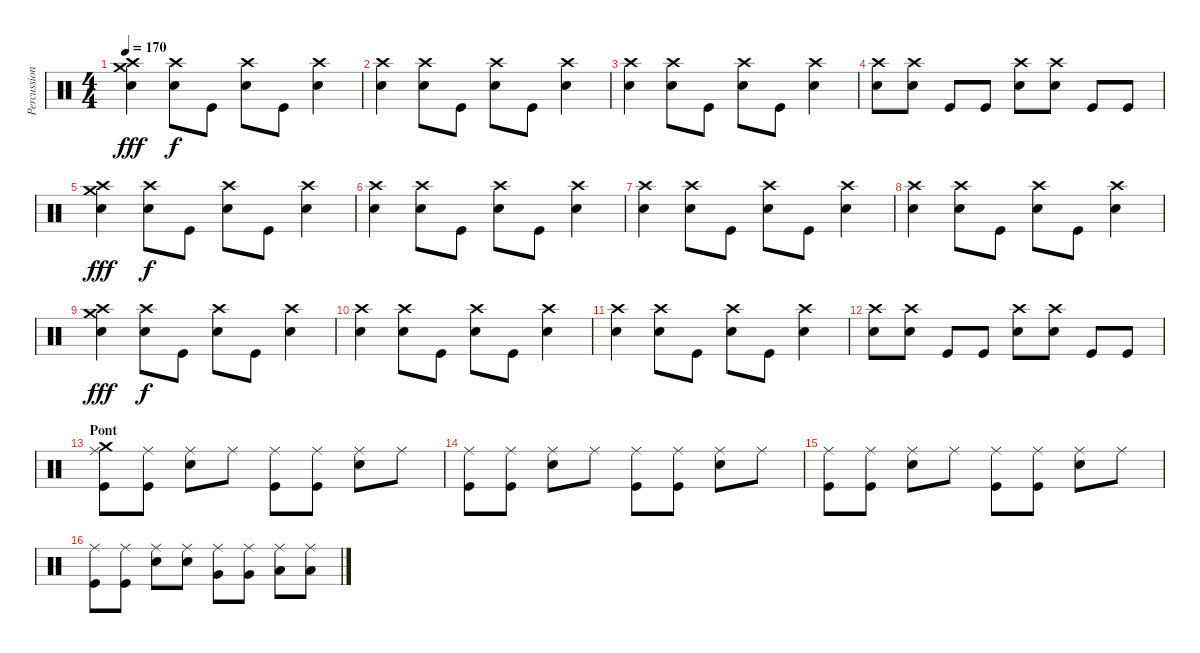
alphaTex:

\track ("Percussions" "Percussion") {instrument percussion}
\staff {score}
\articulation defaults
\ts (4 4)
\tempo 170
\clef neutral
\ks c
("Crash high (hit)" "Crash medium (hit)" "Electric Snare (hit)").4{dy fff} ("Crash high (hit)" "Electric Snare (hit)").8{dy f} "Kick (hit)".8 ("Crash high (hit)" "Electric Snare (hit)").8 "Kick (hit)".8 ("Crash high (hit)" "Electric Snare (hit)").4 |
("Crash high (hit)" "Electric Snare (hit)").4 ("Crash high (hit)" "Electric Snare (hit)").8 "Kick (hit)".8 ("Crash high (hit)" "Electric Snare (hit)").8 "Kick (hit)".8 ("Crash high (hit)" "Electric Snare (hit)").4 |
("Crash high (hit)" "Electric Snare (hit)").4 ("Crash high (hit)" "Electric Snare (hit)").8 "Kick (hit)".8 ("Crash high (hit)" "Electric Snare (hit)").8 "Kick (hit)".8 ("Crash high (hit)" "Electric Snare (hit)").4 |
("Crash high (hit)" "Electric Snare (hit)").8 ("Crash high (hit)" "Electric Snare (hit)").8 "Kick (hit)".8 "Kick (hit)".8 ("Crash high (hit)" "Electric Snare (hit)").8 ("Crash high (hit)" "Electric Snare (hit)").8 "Kick (hit)".8 "Kick (hit)".8 |
("Crash high (hit)" "Crash medium (hit)" "Electric Snare (hit)").4{dy fff} ("Crash high (hit)" "Electric Snare (hit)").8{dy f} "Kick (hit)".8 ("Crash high (hit)" "Electric Snare (hit)").8 "Kick (hit)".8 ("Crash high (hit)" "Electric Snare (hit)").4 |
("Crash high (hit)" "Electric Snare (hit)").4 ("Crash high (hit)" "Electric Snare (hit)").8 "Kick (hit)".8 ("Crash high (hit)" "Electric Snare (hit)").8 "Kick (hit)".8 ("Crash high (hit)" "Electric Snare (hit)").4 |
("Crash high (hit)" "Electric Snare (hit)").4 ("Crash high (hit)" "Electric Snare (hit)").8 "Kick (hit)".8 ("Crash high (hit)" "Electric Snare (hit)").8 "Kick (hit)".8 ("Crash high (hit)" "Electric Snare (hit)").4 |
("Crash high (hit)" "Electric Snare (hit)").4 ("Crash high (hit)" "Electric Snare (hit)").8 "Kick (hit)".8 ("Crash high (hit)" "Electric Snare (hit)").8 "Kick (hit)".8 ("Crash high (hit)" "Electric Snare (hit)").4 |
("Crash high (hit)" "Crash medium (hit)" "Electric Snare (hit)").4{dy fff} ("Crash high (hit)" "Electric Snare (hit)").8{dy f} "Kick (hit)".8 ("Crash high (hit)" "Electric Snare (hit)").8 "Kick (hit)".8 ("Crash high (hit)" "Electric Snare (hit)").4 |
("Crash high (hit)" "Electric Snare (hit)").4 ("Crash high (hit)" "Electric Snare (hit)").8 "Kick (hit)".8 ("Crash high (hit)" "Electric Snare (hit)").8 "Kick (hit)".8 ("Crash high (hit)" "Electric Snare (hit)").4 |
("Crash high (hit)" "Electric Snare (hit)").4 ("Crash high (hit)" "Electric Snare (hit)").8 "Kick (hit)".8 ("Crash high (hit)" "Electric Snare (hit)").8 "Kick (hit)".8 ("Crash high (hit)" "Electric Snare (hit)").4 |
("Crash high (hit)" "Electric Snare (hit)").8 ("Crash high (hit)" "Electric Snare (hit)").8 "Kick (hit)".8 "Kick (hit)".8 ("Crash high (hit)" "Electric Snare (hit)").8 ("Crash high (hit)" "Electric Snare (hit)").8 "Kick (hit)".8 "Kick (hit)".8 |
\section ("" "Pont")
("Ride (middle)" "Crash medium (hit)" "Kick (hit)").8 ("Ride (middle)" "Kick (hit)").8 ("Ride (middle)" "Electric Snare (hit)").8 "Ride (middle)".8 ("Ride (middle)" "Kick (hit)").8 ("Ride (middle)" "Kick (hit)").8 ("Ride (middle)" "Electric Snare (hit)").8 "Ride (middle)".8 |
("Ride (middle)" "Kick (hit)").8 ("Ride (middle)" "Kick (hit)").8 ("Ride (middle)" "Electric Snare (hit)").8 "Ride (middle)".8 ("Ride (middle)" "Kick (hit)").8 ("Ride (middle)" "Kick (hit)").8 ("Ride (middle)" "Electric Snare (hit)").8 "Ride (middle)".8 |
("Ride (middle)" "Kick (hit)").8 ("Ride (middle)" "Kick (hit)").8 ("Ride (middle)" "Electric Snare (hit)").8 "Ride (middle)".8 ("Ride (middle)" "Kick (hit)").8 ("Ride (middle)" "Kick (hit)").8 ("Ride (middle)" "Electric Snare (hit)").8 "Ride (middle)".8 |
("Ride (middle)" "Kick (hit)").8 ("Ride (middle)" "Kick (hit)").8 ("Ride (middle)" "Electric Snare (hit)").8 ("Ride (middle)" "Electric Snare (hit)").8 ("Ride (middle)" "Very Low Tom (hit)").8 ("Ride (middle)" "Very Low Tom (hit)").8 ("Ride (middle)" "Low Floor Tom (hit)").8 ("Ride (middle)" "Low Floor Tom (hit)").8
